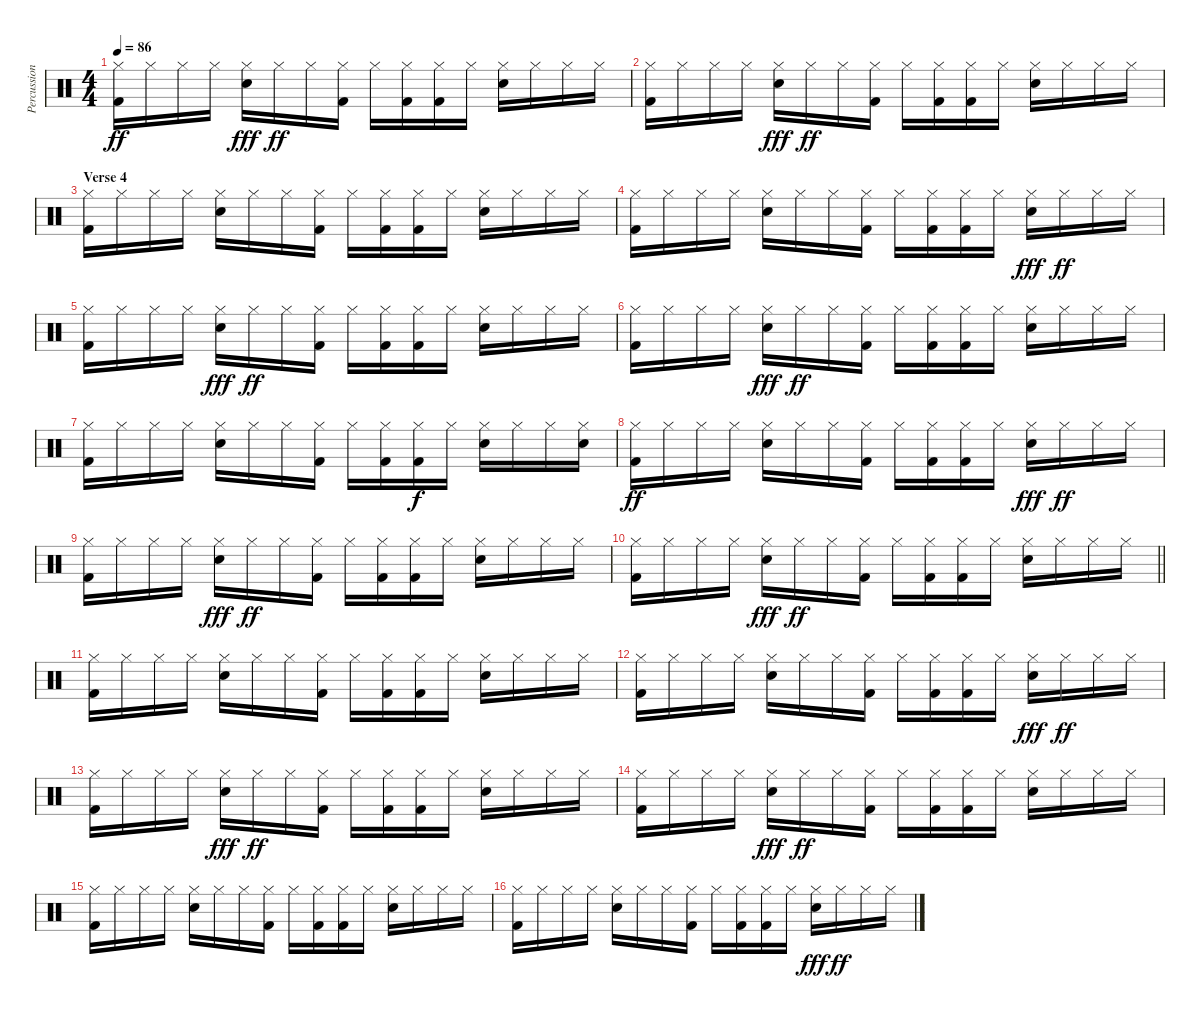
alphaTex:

\track ("Percussion" "Percussion") {instrument percussion}
\staff {score}
\articulation defaults
\ts (4 4)
\tempo 86
\clef neutral
\ks c
("Hi-Hat (closed)" "Kick (hit) 2").16{dy ff} "Hi-Hat (closed)".16 "Hi-Hat (closed)".16 "Hi-Hat (closed)".16 ("Snare (hit) 2" "Hi-Hat (closed)").16{dy fff} "Hi-Hat (closed)".16{dy ff} "Hi-Hat (closed)".16 ("Hi-Hat (closed)" "Kick (hit) 2").16 "Hi-Hat (closed)".16 ("Kick (hit) 2" "Hi-Hat (closed)").16 ("Kick (hit) 2" "Hi-Hat (closed)").16 "Hi-Hat (closed)".16 ("Hi-Hat (closed)" "Snare (hit) 2").16 "Hi-Hat (closed)".16 "Hi-Hat (closed)".16 "Hi-Hat (closed)".16 |
("Hi-Hat (closed)" "Kick (hit) 2").16 "Hi-Hat (closed)".16 "Hi-Hat (closed)".16 "Hi-Hat (closed)".16 ("Snare (hit) 2" "Hi-Hat (closed)").16{dy fff} "Hi-Hat (closed)".16{dy ff} "Hi-Hat (closed)".16 ("Hi-Hat (closed)" "Kick (hit) 2").16 "Hi-Hat (closed)".16 ("Kick (hit) 2" "Hi-Hat (closed)").16 ("Kick (hit) 2" "Hi-Hat (closed)").16 "Hi-Hat (closed)".16 ("Hi-Hat (closed)" "Snare (hit) 2").16 "Hi-Hat (closed)".16 "Hi-Hat (closed)".16 "Hi-Hat (closed)".16 |
\section ("" "Verse 4")
("Hi-Hat (closed)" "Kick (hit) 2").16 "Hi-Hat (closed)".16 "Hi-Hat (closed)".16 "Hi-Hat (closed)".16 ("Hi-Hat (closed)" "Snare (hit) 2").16 "Hi-Hat (closed)".16 "Hi-Hat (closed)".16 ("Hi-Hat (closed)" "Kick (hit) 2").16 "Hi-Hat (closed)".16 ("Hi-Hat (closed)" "Kick (hit) 2").16 ("Hi-Hat (closed)" "Kick (hit) 2").16 "Hi-Hat (closed)".16 ("Hi-Hat (closed)" "Snare (hit) 2").16 "Hi-Hat (closed)".16 "Hi-Hat (closed)".16 "Hi-Hat (closed)".16 |
("Hi-Hat (closed)" "Kick (hit) 2").16 "Hi-Hat (closed)".16 "Hi-Hat (closed)".16 "Hi-Hat (closed)".16 ("Hi-Hat (closed)" "Snare (hit) 2").16 "Hi-Hat (closed)".16 "Hi-Hat (closed)".16 ("Hi-Hat (closed)" "Kick (hit) 2").16 "Hi-Hat (closed)".16 ("Hi-Hat (closed)" "Kick (hit) 2").16 ("Hi-Hat (closed)" "Kick (hit) 2").16 "Hi-Hat (closed)".16 ("Hi-Hat (closed)" "Snare (hit) 2").16{dy fff} "Hi-Hat (closed)".16{dy ff} "Hi-Hat (closed)".16 "Hi-Hat (closed)".16 |
("Hi-Hat (closed)" "Kick (hit) 2").16 "Hi-Hat (closed)".16 "Hi-Hat (closed)".16 "Hi-Hat (closed)".16 ("Snare (hit) 2" "Hi-Hat (closed)").16{dy fff} "Hi-Hat (closed)".16{dy ff} "Hi-Hat (closed)".16 ("Hi-Hat (closed)" "Kick (hit) 2").16 "Hi-Hat (closed)".16 ("Kick (hit) 2" "Hi-Hat (closed)").16 ("Kick (hit) 2" "Hi-Hat (closed)").16 "Hi-Hat (closed)".16 ("Hi-Hat (closed)" "Snare (hit) 2").16 "Hi-Hat (closed)".16 "Hi-Hat (closed)".16 "Hi-Hat (closed)".16 |
("Hi-Hat (closed)" "Kick (hit) 2").16 "Hi-Hat (closed)".16 "Hi-Hat (closed)".16 "Hi-Hat (closed)".16 ("Snare (hit) 2" "Hi-Hat (closed)").16{dy fff} "Hi-Hat (closed)".16{dy ff} "Hi-Hat (closed)".16 ("Hi-Hat (closed)" "Kick (hit) 2").16 "Hi-Hat (closed)".16 ("Kick (hit) 2" "Hi-Hat (closed)").16 ("Kick (hit) 2" "Hi-Hat (closed)").16 "Hi-Hat (closed)".16 ("Hi-Hat (closed)" "Snare (hit) 2").16 "Hi-Hat (closed)".16 "Hi-Hat (closed)".16 "Hi-Hat (closed)".16 |
("Hi-Hat (closed)" "Kick (hit) 2").16 "Hi-Hat (closed)".16 "Hi-Hat (closed)".16 "Hi-Hat (closed)".16 ("Hi-Hat (closed)" "Snare (hit) 2").16 "Hi-Hat (closed)".16 "Hi-Hat (closed)".16 ("Hi-Hat (closed)" "Kick (hit) 2").16 "Hi-Hat (closed)".16 ("Hi-Hat (closed)" "Kick (hit) 2").16 ("Hi-Hat (closed)" "Kick (hit) 2").16{dy f} "Hi-Hat (closed)".16 ("Hi-Hat (closed)" "Snare (hit) 2").16 "Hi-Hat (closed)".16 "Hi-Hat (closed)".16 ("Hi-Hat (closed)" "Snare (hit) 2").16 |
("Hi-Hat (closed)" "Kick (hit) 2").16{dy ff} "Hi-Hat (closed)".16 "Hi-Hat (closed)".16 "Hi-Hat (closed)".16 ("Hi-Hat (closed)" "Snare (hit) 2").16 "Hi-Hat (closed)".16 "Hi-Hat (closed)".16 ("Hi-Hat (closed)" "Kick (hit) 2").16 "Hi-Hat (closed)".16 ("Hi-Hat (closed)" "Kick (hit) 2").16 ("Hi-Hat (closed)" "Kick (hit) 2").16 "Hi-Hat (closed)".16 ("Hi-Hat (closed)" "Snare (hit) 2").16{dy fff} "Hi-Hat (closed)".16{dy ff} "Hi-Hat (closed)".16 "Hi-Hat (closed)".16 |
("Hi-Hat (closed)" "Kick (hit) 2").16 "Hi-Hat (closed)".16 "Hi-Hat (closed)".16 "Hi-Hat (closed)".16 ("Snare (hit) 2" "Hi-Hat (closed)").16{dy fff} "Hi-Hat (closed)".16{dy ff} "Hi-Hat (closed)".16 ("Hi-Hat (closed)" "Kick (hit) 2").16 "Hi-Hat (closed)".16 ("Kick (hit) 2" "Hi-Hat (closed)").16 ("Kick (hit) 2" "Hi-Hat (closed)").16 "Hi-Hat (closed)".16 ("Hi-Hat (closed)" "Snare (hit) 2").16 "Hi-Hat (closed)".16 "Hi-Hat (closed)".16 "Hi-Hat (closed)".16 |
\barLineRight lightlight
("Hi-Hat (closed)" "Kick (hit) 2").16 "Hi-Hat (closed)".16 "Hi-Hat (closed)".16 "Hi-Hat (closed)".16 ("Snare (hit) 2" "Hi-Hat (closed)").16{dy fff} "Hi-Hat (closed)".16{dy ff} "Hi-Hat (closed)".16 ("Hi-Hat (closed)" "Kick (hit) 2").16 "Hi-Hat (closed)".16 ("Kick (hit) 2" "Hi-Hat (closed)").16 ("Kick (hit) 2" "Hi-Hat (closed)").16 "Hi-Hat (closed)".16 ("Hi-Hat (closed)" "Snare (hit) 2").16 "Hi-Hat (closed)".16 "Hi-Hat (closed)".16 "Hi-Hat (closed)".16 |
("Hi-Hat (closed)" "Kick (hit) 2").16 "Hi-Hat (closed)".16 "Hi-Hat (closed)".16 "Hi-Hat (closed)".16 ("Hi-Hat (closed)" "Snare (hit) 2").16 "Hi-Hat (closed)".16 "Hi-Hat (closed)".16 ("Hi-Hat (closed)" "Kick (hit) 2").16 "Hi-Hat (closed)".16 ("Hi-Hat (closed)" "Kick (hit) 2").16 ("Hi-Hat (closed)" "Kick (hit) 2").16 "Hi-Hat (closed)".16 ("Hi-Hat (closed)" "Snare (hit) 2").16 "Hi-Hat (closed)".16 "Hi-Hat (closed)".16 "Hi-Hat (closed)".16 |
("Hi-Hat (closed)" "Kick (hit) 2").16 "Hi-Hat (closed)".16 "Hi-Hat (closed)".16 "Hi-Hat (closed)".16 ("Hi-Hat (closed)" "Snare (hit) 2").16 "Hi-Hat (closed)".16 "Hi-Hat (closed)".16 ("Hi-Hat (closed)" "Kick (hit) 2").16 "Hi-Hat (closed)".16 ("Hi-Hat (closed)" "Kick (hit) 2").16 ("Hi-Hat (closed)" "Kick (hit) 2").16 "Hi-Hat (closed)".16 ("Hi-Hat (closed)" "Snare (hit) 2").16{dy fff} "Hi-Hat (closed)".16{dy ff} "Hi-Hat (closed)".16 "Hi-Hat (closed)".16 |
("Hi-Hat (closed)" "Kick (hit) 2").16 "Hi-Hat (closed)".16 "Hi-Hat (closed)".16 "Hi-Hat (closed)".16 ("Snare (hit) 2" "Hi-Hat (closed)").16{dy fff} "Hi-Hat (closed)".16{dy ff} "Hi-Hat (closed)".16 ("Hi-Hat (closed)" "Kick (hit) 2").16 "Hi-Hat (closed)".16 ("Kick (hit) 2" "Hi-Hat (closed)").16 ("Kick (hit) 2" "Hi-Hat (closed)").16 "Hi-Hat (closed)".16 ("Hi-Hat (closed)" "Snare (hit) 2").16 "Hi-Hat (closed)".16 "Hi-Hat (closed)".16 "Hi-Hat (closed)".16 |
("Hi-Hat (closed)" "Kick (hit) 2").16 "Hi-Hat (closed)".16 "Hi-Hat (closed)".16 "Hi-Hat (closed)".16 ("Snare (hit) 2" "Hi-Hat (closed)").16{dy fff} "Hi-Hat (closed)".16{dy ff} "Hi-Hat (closed)".16 ("Hi-Hat (closed)" "Kick (hit) 2").16 "Hi-Hat (closed)".16 ("Kick (hit) 2" "Hi-Hat (closed)").16 ("Kick (hit) 2" "Hi-Hat (closed)").16 "Hi-Hat (closed)".16 ("Hi-Hat (closed)" "Snare (hit) 2").16 "Hi-Hat (closed)".16 "Hi-Hat (closed)".16 "Hi-Hat (closed)".16 |
("Hi-Hat (closed)" "Kick (hit) 2").16 "Hi-Hat (closed)".16 "Hi-Hat (closed)".16 "Hi-Hat (closed)".16 ("Hi-Hat (closed)" "Snare (hit) 2").16 "Hi-Hat (closed)".16 "Hi-Hat (closed)".16 ("Hi-Hat (closed)" "Kick (hit) 2").16 "Hi-Hat (closed)".16 ("Hi-Hat (closed)" "Kick (hit) 2").16 ("Hi-Hat (closed)" "Kick (hit) 2").16 "Hi-Hat (closed)".16 ("Hi-Hat (closed)" "Snare (hit) 2").16 "Hi-Hat (closed)".16 "Hi-Hat (closed)".16 "Hi-Hat (closed)".16 |
("Hi-Hat (closed)" "Kick (hit) 2").16 "Hi-Hat (closed)".16 "Hi-Hat (closed)".16 "Hi-Hat (closed)".16 ("Hi-Hat (closed)" "Snare (hit) 2").16 "Hi-Hat (closed)".16 "Hi-Hat (closed)".16 ("Hi-Hat (closed)" "Kick (hit) 2").16 "Hi-Hat (closed)".16 ("Hi-Hat (closed)" "Kick (hit) 2").16 ("Hi-Hat (closed)" "Kick (hit) 2").16 "Hi-Hat (closed)".16 ("Hi-Hat (closed)" "Snare (hit) 2").16{dy fff} "Hi-Hat (closed)".16{dy ff} "Hi-Hat (closed)".16 "Hi-Hat (closed)".16
